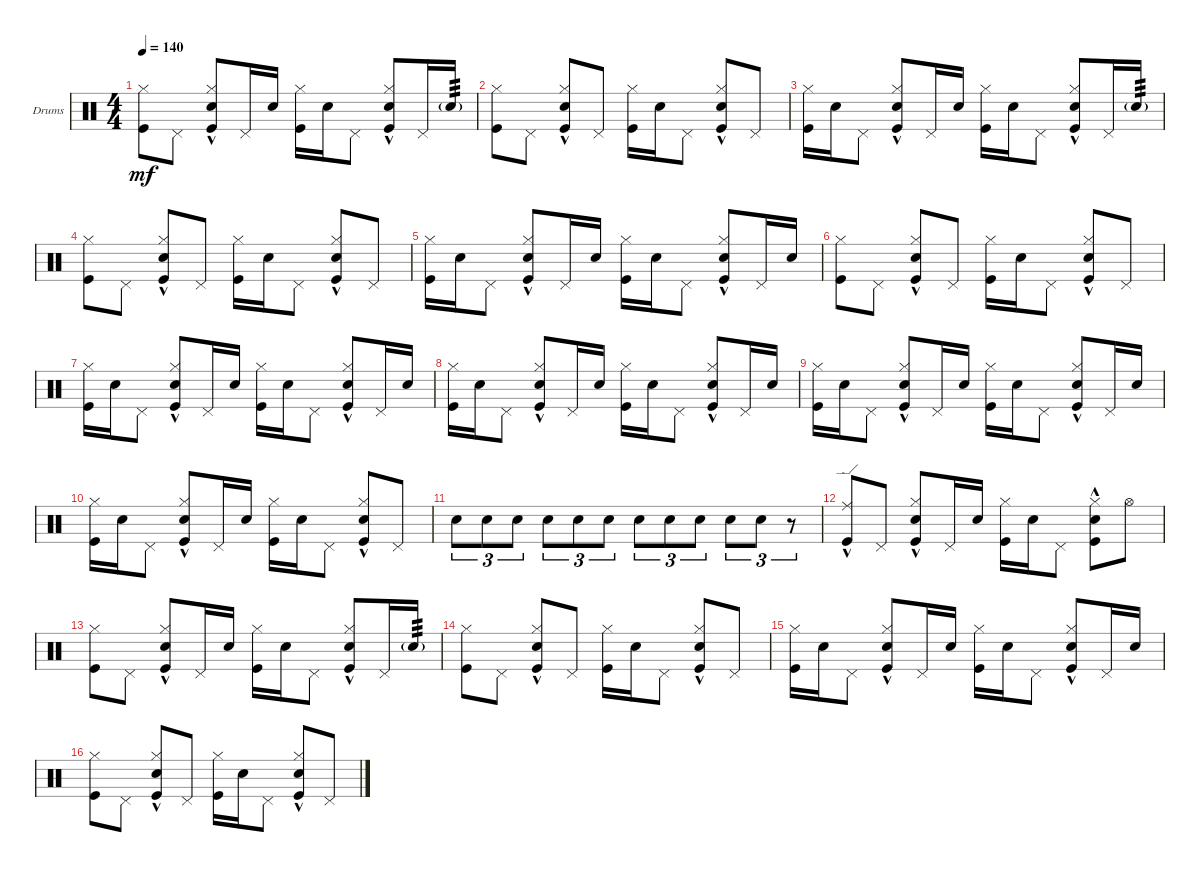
\defaultSystemsLayout 4
\bracketExtendMode groupsimilarinstruments
\firstSystemTrackNameOrientation horizontal
\otherSystemsTrackNameOrientation horizontal
\track ("Drumkit" "Drums") {instrument percussion}
\staff {score}
\articulation defaults
\ts (4 4)
\tempo 140
\clef neutral
\scale
0.258599
\ks c
("Kick (hit)" "Hi-Hat (closed)").8{dy mf} "Pedal Hi-Hat (hit)".8 ("Hi-Hat (closed)" "Kick (hit)" "Snare (hit) 2"{hac}).8 "Pedal Hi-Hat (hit)".16 "Snare (hit) 2".16 ("Kick (hit)" "Hi-Hat (closed)").16 "Snare (hit) 2".16 "Pedal Hi-Hat (hit)".8 ("Hi-Hat (closed)" "Kick (hit)" "Snare (hit) 2"{hac}).8 "Pedal Hi-Hat (hit)".16 "Snare (hit) 2"{g}.16{tp 3} |
\scale
0.235669 ("Kick (hit)" "Hi-Hat (closed)").8 "Pedal Hi-Hat (hit)".8 ("Hi-Hat (closed)" "Kick (hit)" "Snare (hit) 2"{hac}).8 "Pedal Hi-Hat (hit)".8 ("Kick (hit)" "Hi-Hat (closed)").16 "Snare (hit) 2".16 "Pedal Hi-Hat (hit)".8 ("Hi-Hat (closed)" "Kick (hit)" "Snare (hit) 2"{hac}).8 "Pedal Hi-Hat (hit)".8 |
\scale
0.270064 ("Kick (hit)" "Hi-Hat (closed)").16 "Snare (hit) 2".16 "Pedal Hi-Hat (hit)".8 ("Hi-Hat (closed)" "Kick (hit)" "Snare (hit) 2"{hac}).8 "Pedal Hi-Hat (hit)".16 "Snare (hit) 2".16 ("Kick (hit)" "Hi-Hat (closed)").16 "Snare (hit) 2".16 "Pedal Hi-Hat (hit)".8 ("Hi-Hat (closed)" "Kick (hit)" "Snare (hit) 2"{hac}).8 "Pedal Hi-Hat (hit)".16 "Snare (hit) 2"{g}.16{tp 3} |
\scale
0.235669 ("Kick (hit)" "Hi-Hat (closed)").8 "Pedal Hi-Hat (hit)".8 ("Hi-Hat (closed)" "Kick (hit)" "Snare (hit) 2"{hac}).8 "Pedal Hi-Hat (hit)".8 ("Kick (hit)" "Hi-Hat (closed)").16 "Snare (hit) 2".16 "Pedal Hi-Hat (hit)".8 ("Hi-Hat (closed)" "Kick (hit)" "Snare (hit) 2"{hac}).8 "Pedal Hi-Hat (hit)".8 |
\scale
0.258222 ("Kick (hit)" "Hi-Hat (closed)").16 "Snare (hit) 2".16 "Pedal Hi-Hat (hit)".8 ("Hi-Hat (closed)" "Kick (hit)" "Snare (hit) 2"{hac}).8 "Pedal Hi-Hat (hit)".16 "Snare (hit) 2".16 ("Kick (hit)" "Hi-Hat (closed)").16 "Snare (hit) 2".16 "Pedal Hi-Hat (hit)".8 ("Hi-Hat (closed)" "Kick (hit)" "Snare (hit) 2"{hac}).8 "Pedal Hi-Hat (hit)".16 "Snare (hit) 2".16 |
\scale
0.225335 ("Kick (hit)" "Hi-Hat (closed)").8 "Pedal Hi-Hat (hit)".8 ("Hi-Hat (closed)" "Kick (hit)" "Snare (hit) 2"{hac}).8 "Pedal Hi-Hat (hit)".8 ("Kick (hit)" "Hi-Hat (closed)").16 "Snare (hit) 2".16 "Pedal Hi-Hat (hit)".8 ("Hi-Hat (closed)" "Kick (hit)" "Snare (hit) 2"{hac}).8 "Pedal Hi-Hat (hit)".8 |
\scale
0.258222 ("Kick (hit)" "Hi-Hat (closed)").16 "Snare (hit) 2".16 "Pedal Hi-Hat (hit)".8 ("Hi-Hat (closed)" "Kick (hit)" "Snare (hit) 2"{hac}).8 "Pedal Hi-Hat (hit)".16 "Snare (hit) 2".16 ("Kick (hit)" "Hi-Hat (closed)").16 "Snare (hit) 2".16 "Pedal Hi-Hat (hit)".8 ("Hi-Hat (closed)" "Kick (hit)" "Snare (hit) 2"{hac}).8 "Pedal Hi-Hat (hit)".16 "Snare (hit) 2".16 |
\scale
0.258222 ("Kick (hit)" "Hi-Hat (closed)").16 "Snare (hit) 2".16 "Pedal Hi-Hat (hit)".8 ("Hi-Hat (closed)" "Kick (hit)" "Snare (hit) 2"{hac}).8 "Pedal Hi-Hat (hit)".16 "Snare (hit) 2".16 ("Kick (hit)" "Hi-Hat (closed)").16 "Snare (hit) 2".16 "Pedal Hi-Hat (hit)".8 ("Hi-Hat (closed)" "Kick (hit)" "Snare (hit) 2"{hac}).8 "Pedal Hi-Hat (hit)".16 "Snare (hit) 2".16 |
\scale
0.253286 ("Kick (hit)" "Hi-Hat (closed)").16 "Snare (hit) 2".16 "Pedal Hi-Hat (hit)".8 ("Hi-Hat (closed)" "Kick (hit)" "Snare (hit) 2"{hac}).8 "Pedal Hi-Hat (hit)".16 "Snare (hit) 2".16 ("Kick (hit)" "Hi-Hat (closed)").16 "Snare (hit) 2".16 "Pedal Hi-Hat (hit)".8 ("Hi-Hat (closed)" "Kick (hit)" "Snare (hit) 2"{hac}).8 "Pedal Hi-Hat (hit)".16 "Snare (hit) 2".16 |
\scale
0.242533 ("Kick (hit)" "Hi-Hat (closed)").16 "Snare (hit) 2".16 "Pedal Hi-Hat (hit)".8 ("Hi-Hat (closed)" "Kick (hit)" "Snare (hit) 2"{hac}).8 "Pedal Hi-Hat (hit)".16 "Snare (hit) 2".16 ("Kick (hit)" "Hi-Hat (closed)").16 "Snare (hit) 2".16 "Pedal Hi-Hat (hit)".8 ("Hi-Hat (closed)" "Kick (hit)" "Snare (hit) 2"{hac}).8 "Pedal Hi-Hat (hit)".8 |
\scale
0.272401 "Snare (hit) 2".8{tu (3 2)} "Snare (hit) 2".8{tu (3 2)} "Snare (hit) 2".8{tu (3 2)} "Snare (hit) 2".8{tu (3 2)} "Snare (hit) 2".8{tu (3 2)} "Snare (hit) 2".8{tu (3 2)} "Snare (hit) 2".8{tu (3 2)} "Snare (hit) 2".8{tu (3 2)} "Snare (hit) 2".8{tu (3 2)} "Snare (hit) 2".8{tu (3 2)} "Snare (hit) 2".8{tu (3 2)} r.8{tu (3 2)} |
\scale
0.23178 ("Kick (hit)" "Ride (edge)"{hac}).8 "Pedal Hi-Hat (hit)".8 ("Hi-Hat (closed)" "Kick (hit)" "Snare (hit) 2"{hac}).8 "Pedal Hi-Hat (hit)".16 "Snare (hit) 2".16 ("Kick (hit)" "Hi-Hat (closed)").16 "Snare (hit) 2".16 "Pedal Hi-Hat (hit)".8 ("Hi-Hat (closed)" "Kick (hit)" "Snare (hit) 2"{hac}).8 "Hi-Hat (open)".8 |
\scale
0.258599 ("Kick (hit)" "Hi-Hat (closed)").8 "Pedal Hi-Hat (hit)".8 ("Hi-Hat (closed)" "Kick (hit)" "Snare (hit) 2"{hac}).8 "Pedal Hi-Hat (hit)".16 "Snare (hit) 2".16 ("Kick (hit)" "Hi-Hat (closed)").16 "Snare (hit) 2".16 "Pedal Hi-Hat (hit)".8 ("Hi-Hat (closed)" "Kick (hit)" "Snare (hit) 2"{hac}).8 "Pedal Hi-Hat (hit)".16 "Snare (hit) 2"{g}.16{tp 3} |
\scale
0.235669 ("Kick (hit)" "Hi-Hat (closed)").8 "Pedal Hi-Hat (hit)".8 ("Hi-Hat (closed)" "Kick (hit)" "Snare (hit) 2"{hac}).8 "Pedal Hi-Hat (hit)".8 ("Kick (hit)" "Hi-Hat (closed)").16 "Snare (hit) 2".16 "Pedal Hi-Hat (hit)".8 ("Hi-Hat (closed)" "Kick (hit)" "Snare (hit) 2"{hac}).8 "Pedal Hi-Hat (hit)".8 |
\scale
0.270064 ("Kick (hit)" "Hi-Hat (closed)").16 "Snare (hit) 2".16 "Pedal Hi-Hat (hit)".8 ("Hi-Hat (closed)" "Kick (hit)" "Snare (hit) 2"{hac}).8 "Pedal Hi-Hat (hit)".16 "Snare (hit) 2".16 ("Kick (hit)" "Hi-Hat (closed)").16 "Snare (hit) 2".16 "Pedal Hi-Hat (hit)".8 ("Hi-Hat (closed)" "Kick (hit)" "Snare (hit) 2"{hac}).8 "Pedal Hi-Hat (hit)".16 "Snare (hit) 2".16 |
\scale
0.235669 ("Kick (hit)" "Hi-Hat (closed)").8 "Pedal Hi-Hat (hit)".8 ("Hi-Hat (closed)" "Kick (hit)" "Snare (hit) 2"{hac}).8 "Pedal Hi-Hat (hit)".8 ("Kick (hit)" "Hi-Hat (closed)").16 "Snare (hit) 2".16 "Pedal Hi-Hat (hit)".8 ("Hi-Hat (closed)" "Kick (hit)" "Snare (hit) 2"{hac}).8 "Pedal Hi-Hat (hit)".8
